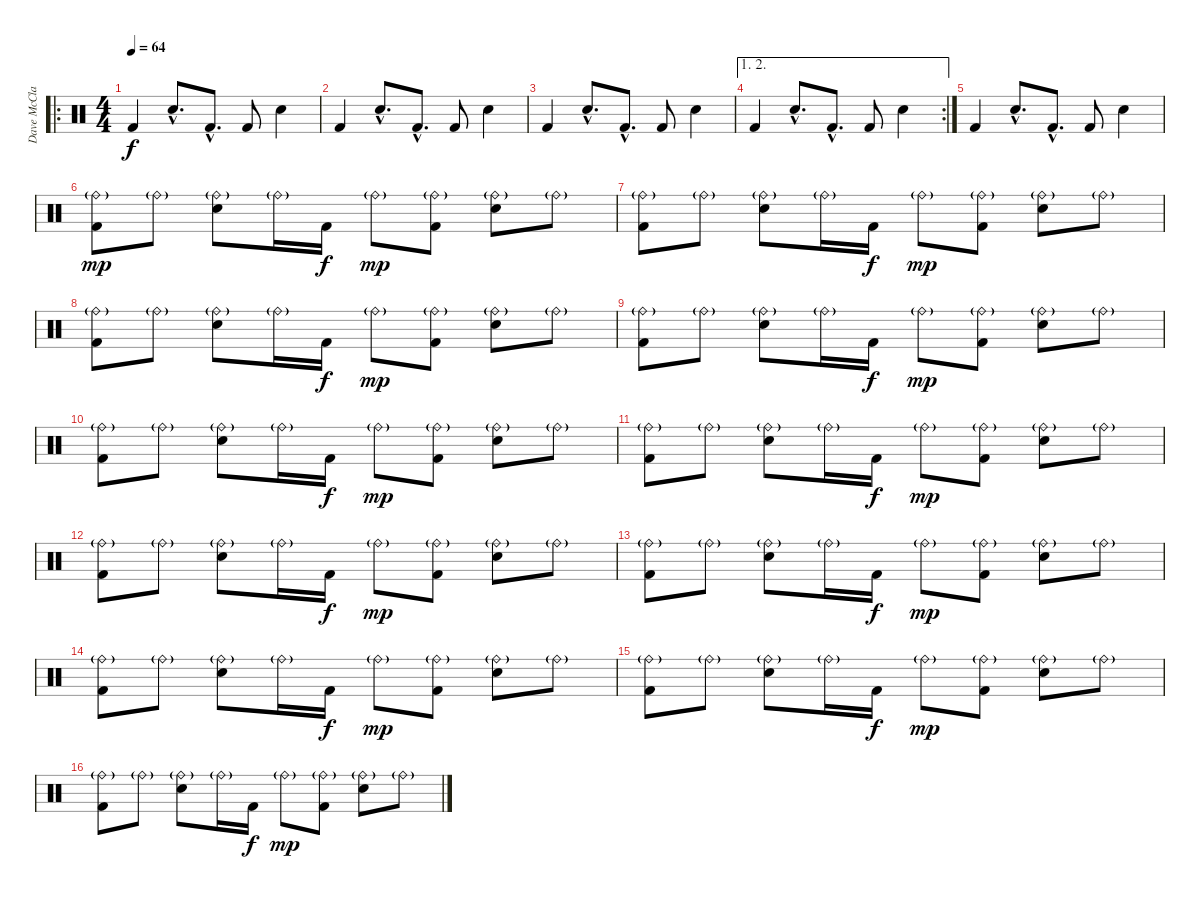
\track ("Dave McClain" "Dave McCla") {instrument percussion}
\staff {score}
\articulation defaults
\ro
\ts (4 4)
\tempo 64
\clef neutral
\ks c "Kick (hit) 2".4{dy f} "Electric Snare (hit)"{hac}.8{d} "Kick (hit) 2"{hac}.8{d} "Kick (hit) 2".8 "Electric Snare (hit)".4
|
"Kick (hit) 2".4 "Electric Snare (hit)"{hac}.8{d} "Kick (hit) 2"{hac}.8{d} "Kick (hit) 2".8 "Electric Snare (hit)".4 |
"Kick (hit) 2".4 "Electric Snare (hit)"{hac}.8{d} "Kick (hit) 2"{hac}.8{d} "Kick (hit) 2".8 "Electric Snare (hit)".4 |
\ae (1 2)
\rc 2 "Kick (hit) 2".4 "Electric Snare (hit)"{hac}.8{d} "Kick (hit) 2"{hac}.8{d} "Kick (hit) 2".8 "Electric Snare (hit)".4
|
"Kick (hit) 2".4 "Electric Snare (hit)"{hac}.8{d} "Kick (hit) 2"{hac}.8{d} "Kick (hit) 2".8 "Electric Snare (hit)".4 |
("Ride (bell)"{g} "Kick (hit) 2").8{dy mp} "Ride (bell)"{g}.8 ("Ride (bell)"{g} "Electric Snare (hit)").8 "Ride (bell)"{g}.16 "Kick (hit) 2".16{dy f} "Ride (bell)"{g}.8{dy mp} ("Ride (bell)"{g} "Kick (hit) 2").8 ("Ride (bell)"{g} "Electric Snare (hit)").8 "Ride (bell)"{g}.8 |
("Ride (bell)"{g} "Kick (hit) 2").8 "Ride (bell)"{g}.8 ("Ride (bell)"{g} "Electric Snare (hit)").8 "Ride (bell)"{g}.16 "Kick (hit) 2".16{dy f} "Ride (bell)"{g}.8{dy mp} ("Ride (bell)"{g} "Kick (hit) 2").8 ("Ride (bell)"{g} "Electric Snare (hit)").8 "Ride (bell)"{g}.8 |
("Ride (bell)"{g} "Kick (hit) 2").8 "Ride (bell)"{g}.8 ("Ride (bell)"{g} "Electric Snare (hit)").8 "Ride (bell)"{g}.16 "Kick (hit) 2".16{dy f} "Ride (bell)"{g}.8{dy mp} ("Ride (bell)"{g} "Kick (hit) 2").8 ("Ride (bell)"{g} "Electric Snare (hit)").8 "Ride (bell)"{g}.8 |
("Ride (bell)"{g} "Kick (hit) 2").8 "Ride (bell)"{g}.8 ("Ride (bell)"{g} "Electric Snare (hit)").8 "Ride (bell)"{g}.16 "Kick (hit) 2".16{dy f} "Ride (bell)"{g}.8{dy mp} ("Ride (bell)"{g} "Kick (hit) 2").8 ("Ride (bell)"{g} "Electric Snare (hit)").8 "Ride (bell)"{g}.8 |
("Ride (bell)"{g} "Kick (hit) 2").8 "Ride (bell)"{g}.8 ("Ride (bell)"{g} "Electric Snare (hit)").8 "Ride (bell)"{g}.16 "Kick (hit) 2".16{dy f} "Ride (bell)"{g}.8{dy mp} ("Ride (bell)"{g} "Kick (hit) 2").8 ("Ride (bell)"{g} "Electric Snare (hit)").8 "Ride (bell)"{g}.8 |
("Ride (bell)"{g} "Kick (hit) 2").8 "Ride (bell)"{g}.8 ("Ride (bell)"{g} "Electric Snare (hit)").8 "Ride (bell)"{g}.16 "Kick (hit) 2".16{dy f} "Ride (bell)"{g}.8{dy mp} ("Ride (bell)"{g} "Kick (hit) 2").8 ("Ride (bell)"{g} "Electric Snare (hit)").8 "Ride (bell)"{g}.8 |
("Ride (bell)"{g} "Kick (hit) 2").8 "Ride (bell)"{g}.8 ("Ride (bell)"{g} "Electric Snare (hit)").8 "Ride (bell)"{g}.16 "Kick (hit) 2".16{dy f} "Ride (bell)"{g}.8{dy mp} ("Ride (bell)"{g} "Kick (hit) 2").8 ("Ride (bell)"{g} "Electric Snare (hit)").8 "Ride (bell)"{g}.8 |
("Ride (bell)"{g} "Kick (hit) 2").8 "Ride (bell)"{g}.8 ("Ride (bell)"{g} "Electric Snare (hit)").8 "Ride (bell)"{g}.16 "Kick (hit) 2".16{dy f} "Ride (bell)"{g}.8{dy mp} ("Ride (bell)"{g} "Kick (hit) 2").8 ("Ride (bell)"{g} "Electric Snare (hit)").8 "Ride (bell)"{g}.8 |
("Ride (bell)"{g} "Kick (hit) 2").8 "Ride (bell)"{g}.8 ("Ride (bell)"{g} "Electric Snare (hit)").8 "Ride (bell)"{g}.16 "Kick (hit) 2".16{dy f} "Ride (bell)"{g}.8{dy mp} ("Ride (bell)"{g} "Kick (hit) 2").8 ("Ride (bell)"{g} "Electric Snare (hit)").8 "Ride (bell)"{g}.8 |
("Ride (bell)"{g} "Kick (hit) 2").8 "Ride (bell)"{g}.8 ("Ride (bell)"{g} "Electric Snare (hit)").8 "Ride (bell)"{g}.16 "Kick (hit) 2".16{dy f} "Ride (bell)"{g}.8{dy mp} ("Ride (bell)"{g} "Kick (hit) 2").8 ("Ride (bell)"{g} "Electric Snare (hit)").8 "Ride (bell)"{g}.8 |
("Ride (bell)"{g} "Kick (hit) 2").8 "Ride (bell)"{g}.8 ("Ride (bell)"{g} "Electric Snare (hit)").8 "Ride (bell)"{g}.16 "Kick (hit) 2".16{dy f} "Ride (bell)"{g}.8{dy mp} ("Ride (bell)"{g} "Kick (hit) 2").8 ("Ride (bell)"{g} "Electric Snare (hit)").8 "Ride (bell)"{g}.8
